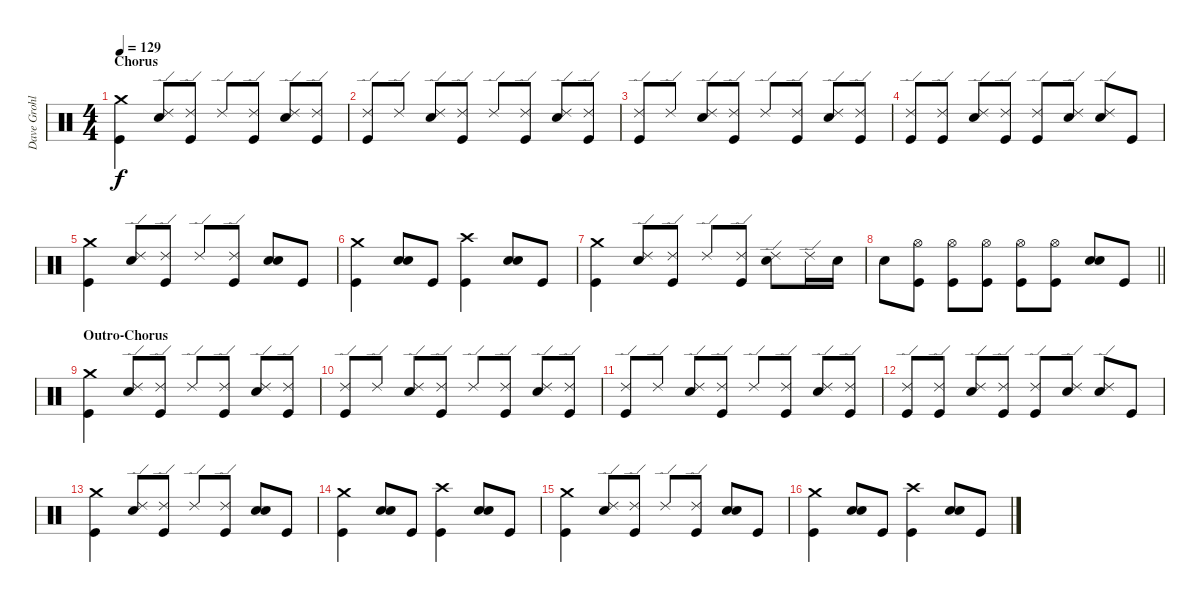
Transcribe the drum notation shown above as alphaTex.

\track ("Dave Grohl" "Dave Grohl") {instrument percussion}
\staff {score}
\articulation defaults
\ts (4 4)
\section ("" "Chorus")
\tempo 129
\clef neutral
\ks c
("Crash medium (hit)" "Kick (hit)").4{dy f} ("Ride (edge) 2" "Electric Snare (hit)").8 ("Ride (edge) 2" "Kick (hit)").8 "Ride (edge) 2".8 ("Ride (edge) 2" "Kick (hit)").8 ("Ride (edge) 2" "Electric Snare (hit)").8 ("Ride (edge) 2" "Kick (hit)").8 |
("Ride (edge) 2" "Kick (hit)").8 "Ride (edge) 2".8 ("Ride (edge) 2" "Electric Snare (hit)").8 ("Ride (edge) 2" "Kick (hit)").8 "Ride (edge) 2".8 ("Ride (edge) 2" "Kick (hit)").8 ("Ride (edge) 2" "Electric Snare (hit)").8 ("Ride (edge) 2" "Kick (hit)").8 |
("Ride (edge) 2" "Kick (hit)").8 "Ride (edge) 2".8 ("Ride (edge) 2" "Electric Snare (hit)").8 ("Ride (edge) 2" "Kick (hit)").8 "Ride (edge) 2".8 ("Ride (edge) 2" "Kick (hit)").8 ("Ride (edge) 2" "Electric Snare (hit)").8 ("Ride (edge) 2" "Kick (hit)").8 |
("Ride (edge) 2" "Kick (hit)").8 ("Ride (edge) 2" "Kick (hit)").8 ("Ride (edge) 2" "Electric Snare (hit)").8 ("Ride (edge) 2" "Kick (hit)").8 ("Ride (edge) 2" "Kick (hit)").8 ("Ride (edge) 2" "Electric Snare (hit)").8 ("Ride (edge) 2" "Electric Snare (hit)").8 "Kick (hit)".8 |
("Crash medium (hit)" "Kick (hit)").4 ("Ride (edge) 2" "Electric Snare (hit)").8 ("Ride (edge) 2" "Kick (hit)").8 "Ride (edge) 2".8 ("Ride (edge) 2" "Kick (hit)").8 ("Electric Snare (hit)" "Electric Snare (hit)").8{bd 120} "Kick (hit)".8 |
("Crash medium (hit)" "Kick (hit)").4 ("Electric Snare (hit)" "Electric Snare (hit)").8{bd 120} "Kick (hit)".8 ("Crash high (hit)" "Kick (hit)").4 ("Electric Snare (hit)" "Electric Snare (hit)").8{bd 120} "Kick (hit)".8 |
("Crash medium (hit)" "Kick (hit)").4 ("Ride (edge) 2" "Electric Snare (hit)").8 ("Ride (edge) 2" "Kick (hit)").8 "Ride (edge) 2".8 ("Ride (edge) 2" "Kick (hit)").8 ("Ride (edge) 2" "Electric Snare (hit)").8 "Ride (edge) 2".16 "Electric Snare (hit)".16 |
\barLineRight lightlight "Electric Snare (hit)".8
("Hi-Hat (open)" "Kick (hit)").8 ("Hi-Hat (open)" "Kick (hit)").8 ("Hi-Hat (open)" "Kick (hit)").8 ("Hi-Hat (open)" "Kick (hit)").8 ("Hi-Hat (open)" "Kick (hit)").8 ("Electric Snare (hit)" "Electric Snare (hit)").8{bd 60} "Kick (hit)".8 |
\section ("" "Outro-Chorus")
("Crash medium (hit)" "Kick (hit)").4 ("Ride (edge) 2" "Electric Snare (hit)").8 ("Ride (edge) 2" "Kick (hit)").8 "Ride (edge) 2".8 ("Ride (edge) 2" "Kick (hit)").8 ("Ride (edge) 2" "Electric Snare (hit)").8 ("Ride (edge) 2" "Kick (hit)").8 |
("Ride (edge) 2" "Kick (hit)").8 "Ride (edge) 2".8 ("Ride (edge) 2" "Electric Snare (hit)").8 ("Ride (edge) 2" "Kick (hit)").8 "Ride (edge) 2".8 ("Ride (edge) 2" "Kick (hit)").8 ("Ride (edge) 2" "Electric Snare (hit)").8 ("Ride (edge) 2" "Kick (hit)").8 |
("Ride (edge) 2" "Kick (hit)").8 "Ride (edge) 2".8 ("Ride (edge) 2" "Electric Snare (hit)").8 ("Ride (edge) 2" "Kick (hit)").8 "Ride (edge) 2".8 ("Ride (edge) 2" "Kick (hit)").8 ("Ride (edge) 2" "Electric Snare (hit)").8 ("Ride (edge) 2" "Kick (hit)").8 |
("Ride (edge) 2" "Kick (hit)").8 ("Ride (edge) 2" "Kick (hit)").8 ("Ride (edge) 2" "Electric Snare (hit)").8 ("Ride (edge) 2" "Kick (hit)").8 ("Ride (edge) 2" "Kick (hit)").8 ("Ride (edge) 2" "Electric Snare (hit)").8 ("Ride (edge) 2" "Electric Snare (hit)").8 "Kick (hit)".8 |
("Crash medium (hit)" "Kick (hit)").4 ("Ride (edge) 2" "Electric Snare (hit)").8 ("Ride (edge) 2" "Kick (hit)").8 "Ride (edge) 2".8 ("Ride (edge) 2" "Kick (hit)").8 ("Electric Snare (hit)" "Electric Snare (hit)").8{bd 120} "Kick (hit)".8 |
("Crash medium (hit)" "Kick (hit)").4 ("Electric Snare (hit)" "Electric Snare (hit)").8{bd 120} "Kick (hit)".8 ("Crash high (hit)" "Kick (hit)").4 ("Electric Snare (hit)" "Electric Snare (hit)").8{bd 120} "Kick (hit)".8 |
("Crash medium (hit)" "Kick (hit)").4 ("Ride (edge) 2" "Electric Snare (hit)").8 ("Ride (edge) 2" "Kick (hit)").8 "Ride (edge) 2".8 ("Ride (edge) 2" "Kick (hit)").8 ("Electric Snare (hit)" "Electric Snare (hit)").8{bd 120} "Kick (hit)".8 |
("Crash medium (hit)" "Kick (hit)").4 ("Electric Snare (hit)" "Electric Snare (hit)").8{bd 120} "Kick (hit)".8 ("Crash high (hit)" "Kick (hit)").4 ("Electric Snare (hit)" "Electric Snare (hit)").8{bd 120} "Kick (hit)".8
